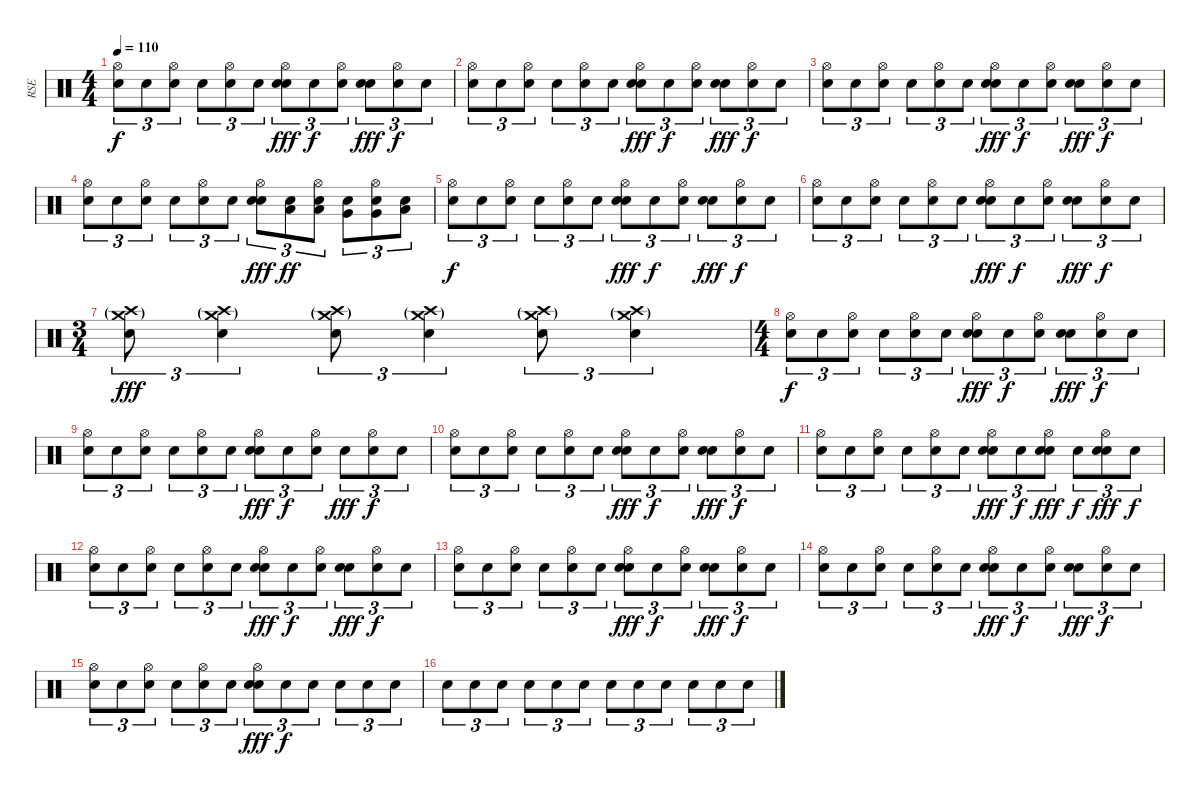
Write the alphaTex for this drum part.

\track ("RSE" "RSE") {instrument percussion}
\staff
\articulation defaults
\ts (4 4)
\tempo 110
\clef neutral
\ks c
("Hi-Hat (open)" "Snare (hit)").8{tu (3 2) dy f} "Snare (hit)".8{tu (3 2)} ("Hi-Hat (open)" "Snare (hit)").8{tu (3 2)} "Snare (hit)".8{tu (3 2)} ("Hi-Hat (open)" "Snare (hit)").8{tu (3 2)} "Snare (hit)".8{tu (3 2)} ("Hi-Hat (open)" "Electric Snare (hit)" "Snare (hit)").8{tu (3 2) dy fff} "Snare (hit)".8{tu (3 2) dy f} ("Hi-Hat (open)" "Snare (hit)").8{tu (3 2)} ("Electric Snare (hit)" "Snare (hit)").8{tu (3 2) dy fff} ("Hi-Hat (open)" "Snare (hit)").8{tu (3 2) dy f} "Snare (hit)".8{tu (3 2)} |
("Hi-Hat (open)" "Snare (hit)").8{tu (3 2)} "Snare (hit)".8{tu (3 2)} ("Hi-Hat (open)" "Snare (hit)").8{tu (3 2)} "Snare (hit)".8{tu (3 2)} ("Hi-Hat (open)" "Snare (hit)").8{tu (3 2)} "Snare (hit)".8{tu (3 2)} ("Hi-Hat (open)" "Electric Snare (hit)" "Snare (hit)").8{tu (3 2) dy fff} "Snare (hit)".8{tu (3 2) dy f} ("Hi-Hat (open)" "Snare (hit)").8{tu (3 2)} ("Electric Snare (hit)" "Snare (hit)").8{tu (3 2) dy fff} ("Hi-Hat (open)" "Snare (hit)").8{tu (3 2) dy f} "Snare (hit)".8{tu (3 2)} |
("Hi-Hat (open)" "Snare (hit)").8{tu (3 2)} "Snare (hit)".8{tu (3 2)} ("Hi-Hat (open)" "Snare (hit)").8{tu (3 2)} "Snare (hit)".8{tu (3 2)} ("Hi-Hat (open)" "Snare (hit)").8{tu (3 2)} "Snare (hit)".8{tu (3 2)} ("Hi-Hat (open)" "Electric Snare (hit)" "Snare (hit)").8{tu (3 2) dy fff} "Snare (hit)".8{tu (3 2) dy f} ("Hi-Hat (open)" "Snare (hit)").8{tu (3 2)} ("Electric Snare (hit)" "Snare (hit)").8{tu (3 2) dy fff} ("Hi-Hat (open)" "Snare (hit)").8{tu (3 2) dy f} "Snare (hit)".8{tu (3 2)} |
("Hi-Hat (open)" "Snare (hit)").8{tu (3 2)} "Snare (hit)".8{tu (3 2)} ("Hi-Hat (open)" "Snare (hit)").8{tu (3 2)} "Snare (hit)".8{tu (3 2)} ("Hi-Hat (open)" "Snare (hit)").8{tu (3 2)} "Snare (hit)".8{tu (3 2)} ("Hi-Hat (open)" "Electric Snare (hit)" "Snare (hit)").8{tu (3 2) dy fff} ("Low Tom (hit)" "Snare (hit)").8{tu (3 2) dy ff} ("Hi-Hat (open)" "Low Tom (hit)" "Snare (hit)").8{tu (3 2)} ("Very Low Tom (hit)" "Snare (hit)").8{tu (3 2)} ("Hi-Hat (open)" "Very Low Tom (hit)" "Snare (hit)").8{tu (3 2)} ("Low Floor Tom (hit)" "Snare (hit)").8{tu (3 2)} |
("Hi-Hat (open)" "Snare (hit)").8{tu (3 2) dy f} "Snare (hit)".8{tu (3 2)} ("Hi-Hat (open)" "Snare (hit)").8{tu (3 2)} "Snare (hit)".8{tu (3 2)} ("Hi-Hat (open)" "Snare (hit)").8{tu (3 2)} "Snare (hit)".8{tu (3 2)} ("Hi-Hat (open)" "Electric Snare (hit)" "Snare (hit)").8{tu (3 2) dy fff} "Snare (hit)".8{tu (3 2) dy f} ("Hi-Hat (open)" "Snare (hit)").8{tu (3 2)} ("Electric Snare (hit)" "Snare (hit)").8{tu (3 2) dy fff} ("Hi-Hat (open)" "Snare (hit)").8{tu (3 2) dy f} "Snare (hit)".8{tu (3 2)} |
("Hi-Hat (open)" "Snare (hit)").8{tu (3 2)} "Snare (hit)".8{tu (3 2)} ("Hi-Hat (open)" "Snare (hit)").8{tu (3 2)} "Snare (hit)".8{tu (3 2)} ("Hi-Hat (open)" "Snare (hit)").8{tu (3 2)} "Snare (hit)".8{tu (3 2)} ("Hi-Hat (open)" "Electric Snare (hit)" "Snare (hit)").8{tu (3 2) dy fff} "Snare (hit)".8{tu (3 2) dy f} ("Hi-Hat (open)" "Snare (hit)").8{tu (3 2)} ("Electric Snare (hit)" "Snare (hit)").8{tu (3 2) dy fff} ("Hi-Hat (open)" "Snare (hit)").8{tu (3 2) dy f} "Snare (hit)".8{tu (3 2)} |
\ts (3 4)
("Crash high (hit)"{g} "Crash medium (hit)"{g} "Snare (hit)").8{tu (3 2) dy fff} ("Crash high (hit)"{g} "Crash medium (hit)"{g} "Snare (hit)").4{tu (3 2)} ("Crash high (hit)"{g} "Crash medium (hit)"{g} "Snare (hit)").8{tu (3 2)} ("Crash high (hit)"{g} "Crash medium (hit)"{g} "Snare (hit)").4{tu (3 2)} ("Crash high (hit)"{g} "Crash medium (hit)"{g} "Snare (hit)").8{tu (3 2)} ("Crash high (hit)"{g} "Crash medium (hit)"{g} "Snare (hit)").4{tu (3 2)} |
\ts (4 4)
("Hi-Hat (open)" "Snare (hit)").8{tu (3 2) dy f} "Snare (hit)".8{tu (3 2)} ("Hi-Hat (open)" "Snare (hit)").8{tu (3 2)} "Snare (hit)".8{tu (3 2)} ("Hi-Hat (open)" "Snare (hit)").8{tu (3 2)} "Snare (hit)".8{tu (3 2)} ("Hi-Hat (open)" "Electric Snare (hit)" "Snare (hit)").8{tu (3 2) dy fff} "Snare (hit)".8{tu (3 2) dy f} ("Hi-Hat (open)" "Snare (hit)").8{tu (3 2)} ("Electric Snare (hit)" "Snare (hit)").8{tu (3 2) dy fff} ("Hi-Hat (open)" "Snare (hit)").8{tu (3 2) dy f} "Snare (hit)".8{tu (3 2)} |
("Hi-Hat (open)" "Snare (hit)").8{tu (3 2)} "Snare (hit)".8{tu (3 2)} ("Hi-Hat (open)" "Snare (hit)").8{tu (3 2)} "Snare (hit)".8{tu (3 2)} ("Hi-Hat (open)" "Snare (hit)").8{tu (3 2)} "Snare (hit)".8{tu (3 2)} ("Hi-Hat (open)" "Electric Snare (hit)" "Snare (hit)").8{tu (3 2) dy fff} "Snare (hit)".8{tu (3 2) dy f} ("Hi-Hat (open)" "Snare (hit)").8{tu (3 2)} "Snare (hit)".8{tu (3 2) dy fff} ("Hi-Hat (open)" "Snare (hit)").8{tu (3 2) dy f} "Snare (hit)".8{tu (3 2)} |
("Hi-Hat (open)" "Snare (hit)").8{tu (3 2)} "Snare (hit)".8{tu (3 2)} ("Hi-Hat (open)" "Snare (hit)").8{tu (3 2)} "Snare (hit)".8{tu (3 2)} ("Hi-Hat (open)" "Snare (hit)").8{tu (3 2)} "Snare (hit)".8{tu (3 2)} ("Hi-Hat (open)" "Electric Snare (hit)" "Snare (hit)").8{tu (3 2) dy fff} "Snare (hit)".8{tu (3 2) dy f} ("Hi-Hat (open)" "Snare (hit)").8{tu (3 2)} ("Electric Snare (hit)" "Snare (hit)").8{tu (3 2) dy fff} ("Hi-Hat (open)" "Snare (hit)").8{tu (3 2) dy f} "Snare (hit)".8{tu (3 2)} |
("Hi-Hat (open)" "Snare (hit)").8{tu (3 2)} "Snare (hit)".8{tu (3 2)} ("Hi-Hat (open)" "Snare (hit)").8{tu (3 2)} "Snare (hit)".8{tu (3 2)} ("Hi-Hat (open)" "Snare (hit)").8{tu (3 2)} "Snare (hit)".8{tu (3 2)} ("Hi-Hat (open)" "Electric Snare (hit)" "Snare (hit)").8{tu (3 2) dy fff} "Snare (hit)".8{tu (3 2) dy f} ("Hi-Hat (open)" "Electric Snare (hit)" "Snare (hit)").8{tu (3 2) dy fff} "Snare (hit)".8{tu (3 2) dy f} ("Hi-Hat (open)" "Electric Snare (hit)" "Snare (hit)").8{tu (3 2) dy fff} "Snare (hit)".8{tu (3 2) dy f} |
("Hi-Hat (open)" "Snare (hit)").8{tu (3 2)} "Snare (hit)".8{tu (3 2)} ("Hi-Hat (open)" "Snare (hit)").8{tu (3 2)} "Snare (hit)".8{tu (3 2)} ("Hi-Hat (open)" "Snare (hit)").8{tu (3 2)} "Snare (hit)".8{tu (3 2)} ("Hi-Hat (open)" "Electric Snare (hit)" "Snare (hit)").8{tu (3 2) dy fff} "Snare (hit)".8{tu (3 2) dy f} ("Hi-Hat (open)" "Snare (hit)").8{tu (3 2)} ("Electric Snare (hit)" "Snare (hit)").8{tu (3 2) dy fff} ("Hi-Hat (open)" "Snare (hit)").8{tu (3 2) dy f} "Snare (hit)".8{tu (3 2)} |
("Hi-Hat (open)" "Snare (hit)").8{tu (3 2)} "Snare (hit)".8{tu (3 2)} ("Hi-Hat (open)" "Snare (hit)").8{tu (3 2)} "Snare (hit)".8{tu (3 2)} ("Hi-Hat (open)" "Snare (hit)").8{tu (3 2)} "Snare (hit)".8{tu (3 2)} ("Hi-Hat (open)" "Electric Snare (hit)" "Snare (hit)").8{tu (3 2) dy fff} "Snare (hit)".8{tu (3 2) dy f} ("Hi-Hat (open)" "Snare (hit)").8{tu (3 2)} ("Electric Snare (hit)" "Snare (hit)").8{tu (3 2) dy fff} ("Hi-Hat (open)" "Snare (hit)").8{tu (3 2) dy f} "Snare (hit)".8{tu (3 2)} |
("Hi-Hat (open)" "Snare (hit)").8{tu (3 2)} "Snare (hit)".8{tu (3 2)} ("Hi-Hat (open)" "Snare (hit)").8{tu (3 2)} "Snare (hit)".8{tu (3 2)} ("Hi-Hat (open)" "Snare (hit)").8{tu (3 2)} "Snare (hit)".8{tu (3 2)} ("Hi-Hat (open)" "Electric Snare (hit)" "Snare (hit)").8{tu (3 2) dy fff} "Snare (hit)".8{tu (3 2) dy f} ("Hi-Hat (open)" "Snare (hit)").8{tu (3 2)} ("Electric Snare (hit)" "Snare (hit)").8{tu (3 2) dy fff} ("Hi-Hat (open)" "Snare (hit)").8{tu (3 2) dy f} "Snare (hit)".8{tu (3 2)} |
("Hi-Hat (open)" "Snare (hit)").8{tu (3 2)} "Snare (hit)".8{tu (3 2)} ("Hi-Hat (open)" "Snare (hit)").8{tu (3 2)} "Snare (hit)".8{tu (3 2)} ("Hi-Hat (open)" "Snare (hit)").8{tu (3 2)} "Snare (hit)".8{tu (3 2)} ("Hi-Hat (open)" "Electric Snare (hit)" "Snare (hit)").8{tu (3 2) dy fff} "Snare (hit)".8{tu (3 2) dy f} "Snare (hit)".8{tu (3 2)} "Snare (hit)".8{tu (3 2)} "Snare (hit)".8{tu (3 2)} "Snare (hit)".8{tu (3 2)} |
"Snare (hit)".8{tu (3 2)} "Snare (hit)".8{tu (3 2)} "Snare (hit)".8{tu (3 2)} "Snare (hit)".8{tu (3 2)} "Snare (hit)".8{tu (3 2)} "Snare (hit)".8{tu (3 2)} "Snare (hit)".8{tu (3 2)} "Snare (hit)".8{tu (3 2)} "Snare (hit)".8{tu (3 2)} "Snare (hit)".8{tu (3 2)} "Snare (hit)".8{tu (3 2)} "Snare (hit)".8{tu (3 2)}
